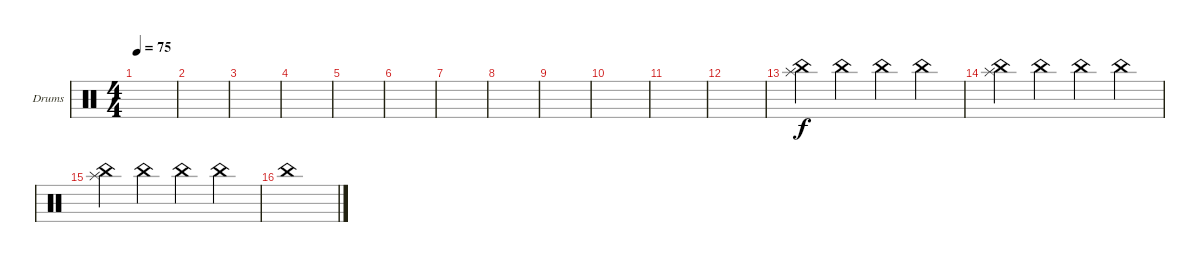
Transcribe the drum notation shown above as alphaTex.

\defaultSystemsLayout 4
\bracketExtendMode groupsimilarinstruments
\firstSystemTrackNameOrientation horizontal
\otherSystemsTrackNameOrientation horizontal
\track ("Drumkit2" "Drums") {instrument percussion}
\staff {score}
\articulation defaults
\ts (4 4)
\tempo 75
\clef neutral
\scale
0.472222
\ks c
|
\scale
0.263889 |
\scale
0.263889 |
\scale
0.333333 |
\scale
0.333333 |
\scale
0.333333 |
\scale
0.333333 |
\scale
0.333333 |
\scale
0.333333 |
\scale
0.333333 |
\scale
0.333333 |
\scale
0.333333 |
\scale
0.333333 ("Splash (hit)" "China (hit)").4 "China (hit)".4 "China (hit)".4 "China (hit)".4 |
\scale
0.333333 ("Splash (hit)" "China (hit)").4 "China (hit)".4 "China (hit)".4 "China (hit)".4 |
\scale
0.333333 ("Splash (hit)" "China (hit)").4 "China (hit)".4 "China (hit)".4 "China (hit)".4 |
\scale
0.333333 "China (hit)".1
